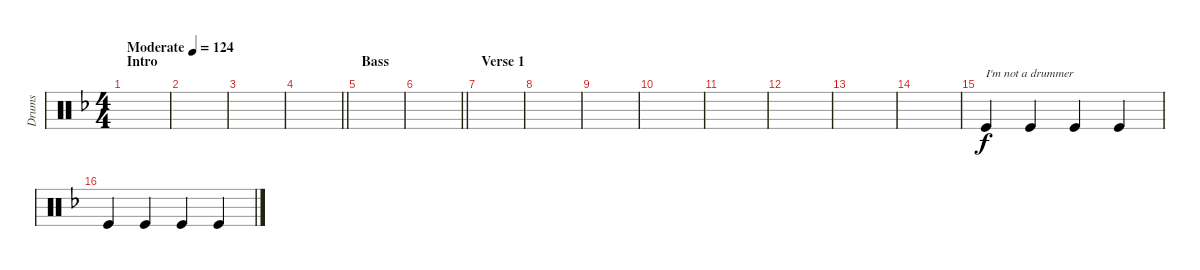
\track ("Drums" "Drums") {instrument percussion}
\staff {score}
\articulation defaults
\ts (4 4)
\section ("" "Intro")
\tempo (124 "Moderate")
\clef neutral
\ks f
|
|
|
\barLineRight lightlight
|
\section ("" "Bass")
|
\barLineRight lightlight
|
\section ("" "Verse 1")
|
|
|
|
|
|
|
|
"Kick (hit)".4{txt "I'm not a drummer"} "Kick (hit)".4 "Kick (hit)".4 "Kick (hit)".4 |
"Kick (hit)".4 "Kick (hit)".4 "Kick (hit)".4 "Kick (hit)".4
